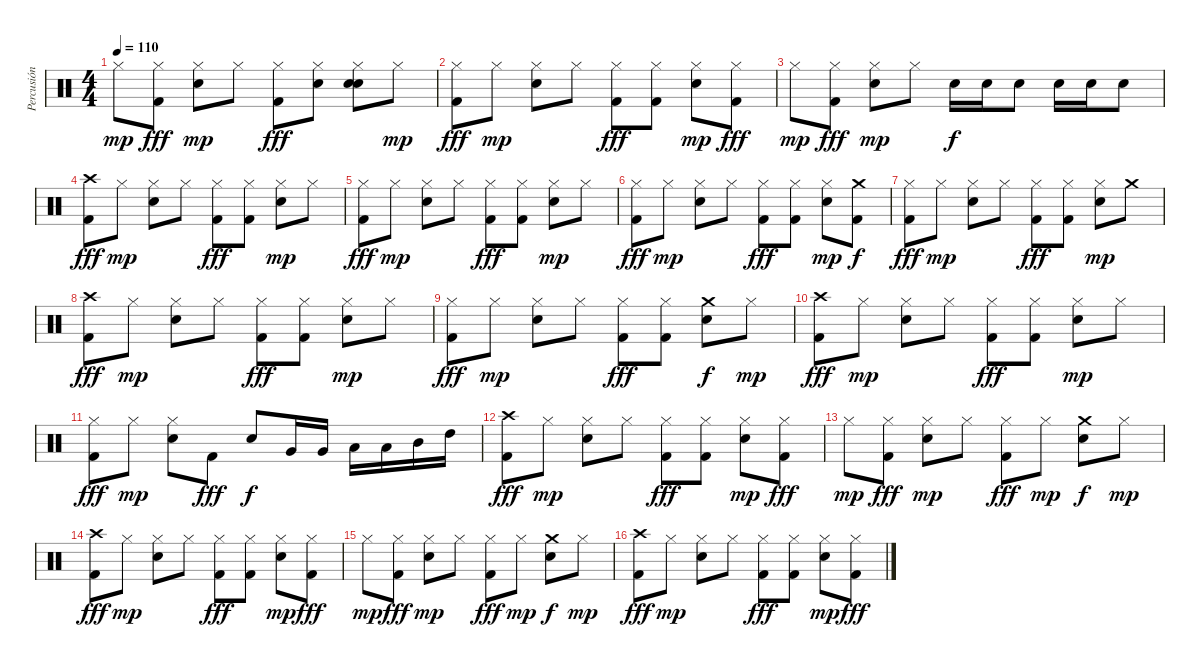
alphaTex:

\track ("Percusión" "Percusión") {instrument percussion}
\staff {score}
\articulation defaults
\ts (4 4)
\tempo 110
\clef neutral
\ks c "Hi-Hat (closed)".8{dy mp}
("Hi-Hat (closed)" "Kick (hit) 2").8{dy fff} ("Hi-Hat (closed)" "Snare (hit) 2").8{dy mp} "Hi-Hat (closed)".8 ("Hi-Hat (closed)" "Kick (hit) 2").8{dy fff} ("Hi-Hat (closed)" "Hand Clap (hit)").8 ("Hi-Hat (closed)" "Snare (hit) 2" "Hand Clap (hit)").8 "Hi-Hat (closed)".8{dy mp} |
("Hi-Hat (closed)" "Kick (hit) 2").8{dy fff} "Hi-Hat (closed)".8{dy mp} ("Hi-Hat (closed)" "Snare (hit) 2").8 "Hi-Hat (closed)".8 ("Hi-Hat (closed)" "Kick (hit) 2").8{dy fff} ("Hi-Hat (closed)" "Kick (hit) 2").8 ("Hi-Hat (closed)" "Snare (hit) 2").8{dy mp} ("Hi-Hat (closed)" "Kick (hit) 2").8{dy fff} |
"Hi-Hat (closed)".8{dy mp} ("Hi-Hat (closed)" "Kick (hit) 2").8{dy fff} ("Hi-Hat (closed)" "Snare (hit) 2").8{dy mp} "Hi-Hat (closed)".8 "Snare (hit) 2".16{dy f} "Snare (hit) 2".16 "Snare (hit) 2".8 "Snare (hit) 2".16 "Snare (hit) 2".16 "Snare (hit) 2".8 |
("Crash high (hit)" "Kick (hit) 2").8{dy fff} "Hi-Hat (closed)".8{dy mp} ("Hi-Hat (closed)" "Snare (hit) 2").8 "Hi-Hat (closed)".8 ("Hi-Hat (closed)" "Kick (hit) 2").8{dy fff} ("Hi-Hat (closed)" "Kick (hit) 2").8 ("Hi-Hat (closed)" "Snare (hit) 2").8{dy mp} "Hi-Hat (closed)".8 |
("Hi-Hat (closed)" "Kick (hit) 2").8{dy fff} "Hi-Hat (closed)".8{dy mp} ("Hi-Hat (closed)" "Snare (hit) 2").8 "Hi-Hat (closed)".8 ("Hi-Hat (closed)" "Kick (hit) 2").8{dy fff} ("Hi-Hat (closed)" "Kick (hit) 2").8 ("Hi-Hat (closed)" "Snare (hit) 2").8{dy mp} "Hi-Hat (closed)".8 |
("Hi-Hat (closed)" "Kick (hit) 2").8{dy fff} "Hi-Hat (closed)".8{dy mp} ("Hi-Hat (closed)" "Snare (hit) 2").8 "Hi-Hat (closed)".8 ("Hi-Hat (closed)" "Kick (hit) 2").8{dy fff} ("Hi-Hat (closed)" "Kick (hit) 2").8 ("Hi-Hat (closed)" "Snare (hit) 2").8{dy mp} ("Crash medium (hit)" "Kick (hit) 2").8{dy f} |
("Hi-Hat (closed)" "Kick (hit) 2").8{dy fff} "Hi-Hat (closed)".8{dy mp} ("Hi-Hat (closed)" "Snare (hit) 2").8 "Hi-Hat (closed)".8 ("Hi-Hat (closed)" "Kick (hit) 2").8{dy fff} ("Hi-Hat (closed)" "Kick (hit) 2").8 ("Hi-Hat (closed)" "Snare (hit) 2").8{dy mp} "Crash medium (hit)".8 |
("Crash high (hit)" "Kick (hit) 2").8{dy fff} "Hi-Hat (closed)".8{dy mp} ("Hi-Hat (closed)" "Snare (hit) 2").8 "Hi-Hat (closed)".8 ("Hi-Hat (closed)" "Kick (hit) 2").8{dy fff} ("Hi-Hat (closed)" "Kick (hit) 2").8 ("Hi-Hat (closed)" "Snare (hit) 2").8{dy mp} "Hi-Hat (closed)".8 |
("Hi-Hat (closed)" "Kick (hit) 2").8{dy fff} "Hi-Hat (closed)".8{dy mp} ("Hi-Hat (closed)" "Snare (hit) 2").8 "Hi-Hat (closed)".8 ("Hi-Hat (closed)" "Kick (hit) 2").8{dy fff} ("Hi-Hat (closed)" "Kick (hit) 2").8 ("Crash medium (hit)" "Snare (hit) 2").8{dy f} "Hi-Hat (closed)".8{dy mp} |
("Crash high (hit)" "Kick (hit) 2").8{dy fff} "Hi-Hat (closed)".8{dy mp} ("Hi-Hat (closed)" "Snare (hit) 2").8 "Hi-Hat (closed)".8 ("Hi-Hat (closed)" "Kick (hit) 2").8{dy fff} ("Hi-Hat (closed)" "Kick (hit) 2").8 ("Hi-Hat (closed)" "Snare (hit) 2").8{dy mp} "Hi-Hat (closed)".8 |
("Hi-Hat (closed)" "Kick (hit) 2").8{dy fff} "Hi-Hat (closed)".8{dy mp} ("Hi-Hat (closed)" "Snare (hit) 2").8 "Kick (hit) 2".8{dy fff} "Snare (hit) 2".8{dy f} "Very Low Tom (hit)".16 "Very Low Tom (hit)".16 "Low Tom (hit)".16 "Low Tom (hit)".16 "Mid Tom (hit)".16 "High Tom (hit)".16 |
("Crash high (hit)" "Kick (hit) 2").8{dy fff} "Hi-Hat (closed)".8{dy mp} ("Hi-Hat (closed)" "Snare (hit) 2").8 "Hi-Hat (closed)".8 ("Hi-Hat (closed)" "Kick (hit) 2").8{dy fff} ("Hi-Hat (closed)" "Kick (hit) 2").8 ("Hi-Hat (closed)" "Snare (hit) 2").8{dy mp} ("Hi-Hat (closed)" "Kick (hit) 2").8{dy fff} |
"Hi-Hat (closed)".8{dy mp} ("Hi-Hat (closed)" "Kick (hit) 2").8{dy fff} ("Hi-Hat (closed)" "Snare (hit) 2").8{dy mp} "Hi-Hat (closed)".8 ("Hi-Hat (closed)" "Kick (hit) 2").8{dy fff} "Hi-Hat (closed)".8{dy mp} ("Crash medium (hit)" "Snare (hit) 2").8{dy f} "Hi-Hat (closed)".8{dy mp} |
("Crash high (hit)" "Kick (hit) 2").8{dy fff} "Hi-Hat (closed)".8{dy mp} ("Hi-Hat (closed)" "Snare (hit) 2").8 "Hi-Hat (closed)".8 ("Hi-Hat (closed)" "Kick (hit) 2").8{dy fff} ("Hi-Hat (closed)" "Kick (hit) 2").8 ("Hi-Hat (closed)" "Snare (hit) 2").8{dy mp} ("Hi-Hat (closed)" "Kick (hit) 2").8{dy fff} |
"Hi-Hat (closed)".8{dy mp} ("Hi-Hat (closed)" "Kick (hit) 2").8{dy fff} ("Hi-Hat (closed)" "Snare (hit) 2").8{dy mp} "Hi-Hat (closed)".8 ("Hi-Hat (closed)" "Kick (hit) 2").8{dy fff} "Hi-Hat (closed)".8{dy mp} ("Crash medium (hit)" "Snare (hit) 2").8{dy f} "Hi-Hat (closed)".8{dy mp} |
("Crash high (hit)" "Kick (hit) 2").8{dy fff} "Hi-Hat (closed)".8{dy mp} ("Hi-Hat (closed)" "Snare (hit) 2").8 "Hi-Hat (closed)".8 ("Hi-Hat (closed)" "Kick (hit) 2").8{dy fff} ("Hi-Hat (closed)" "Kick (hit) 2").8 ("Hi-Hat (closed)" "Snare (hit) 2").8{dy mp} ("Hi-Hat (closed)" "Kick (hit) 2").8{dy fff}
